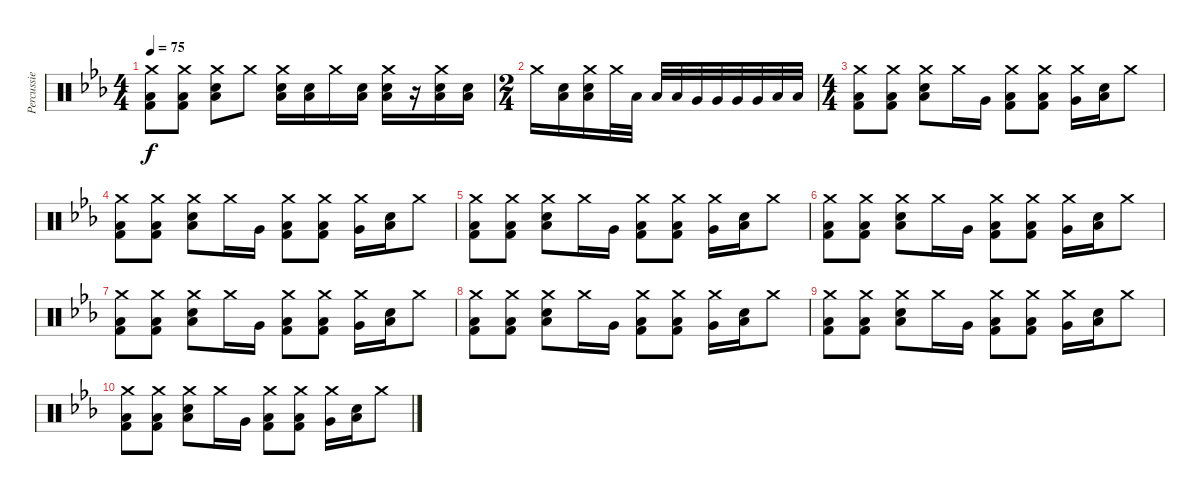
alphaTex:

\track ("Percussie" "Percussie") {instrument percussion}
\staff {score}
\articulation defaults
\ts (4 4)
\tempo 75
\clef neutral
\ks eb
("Low Floor Tom (hit)" "Kick (hit) 2" "Crash medium (hit)").8{dy f} ("Low Floor Tom (hit)" "Kick (hit) 2" "Crash medium (hit)").8 ("Low Tom (hit)" "Electric Snare (hit)" "Crash medium (hit)").8 "Crash medium (hit)".8 ("Low Floor Tom (hit)" "Electric Snare (hit)" "Crash medium (hit)").16 ("Low Floor Tom (hit)" "Electric Snare (hit)").16 "Crash medium (hit)".16 ("Low Floor Tom (hit)" "Electric Snare (hit)").16 ("Low Floor Tom (hit)" "Electric Snare (hit)" "Crash medium (hit)").16 r.16 ("Low Floor Tom (hit)" "Electric Snare (hit)" "Crash medium (hit)").16 ("Low Floor Tom (hit)" "Electric Snare (hit)").16 |
\ts (2 4)
"Crash medium (hit)".16 ("Low Floor Tom (hit)" "Electric Snare (hit)").16 ("Low Floor Tom (hit)" "Electric Snare (hit)" "Crash medium (hit)").16 "Crash medium (hit)".32 "Low Tom (hit)".32 "Low Tom (hit)".32 "Low Tom (hit)".32 "Very Low Tom (hit)".32 "Very Low Tom (hit)".32 "Very Low Tom (hit)".32 "Very Low Tom (hit)".32 "Low Floor Tom (hit)".32 "Low Floor Tom (hit)".32 |
\ts (4 4)
("Low Floor Tom (hit)" "Kick (hit) 2" "Crash medium (hit)").8 ("Low Floor Tom (hit)" "Kick (hit) 2" "Crash medium (hit)").8 ("Low Tom (hit)" "Electric Snare (hit)" "Crash medium (hit)").8 "Crash medium (hit)".16 "Very Low Tom (hit)".16 ("Low Floor Tom (hit)" "Kick (hit) 2" "Crash medium (hit)").8 ("Low Floor Tom (hit)" "Kick (hit) 2" "Crash medium (hit)").8 ("Very Low Tom (hit)" "Crash medium (hit)").16 ("Low Tom (hit)" "Electric Snare (hit)").16 "Crash medium (hit)".8 |
("Low Floor Tom (hit)" "Kick (hit) 2" "Crash medium (hit)").8 ("Low Floor Tom (hit)" "Kick (hit) 2" "Crash medium (hit)").8 ("Low Tom (hit)" "Electric Snare (hit)" "Crash medium (hit)").8 "Crash medium (hit)".16 "Very Low Tom (hit)".16 ("Low Floor Tom (hit)" "Kick (hit) 2" "Crash medium (hit)").8 ("Low Floor Tom (hit)" "Kick (hit) 2" "Crash medium (hit)").8 ("Very Low Tom (hit)" "Crash medium (hit)").16 ("Low Tom (hit)" "Electric Snare (hit)").16 "Crash medium (hit)".8 |
("Low Floor Tom (hit)" "Kick (hit) 2" "Crash medium (hit)").8 ("Low Floor Tom (hit)" "Kick (hit) 2" "Crash medium (hit)").8 ("Low Tom (hit)" "Electric Snare (hit)" "Crash medium (hit)").8 "Crash medium (hit)".16 "Very Low Tom (hit)".16 ("Low Floor Tom (hit)" "Kick (hit) 2" "Crash medium (hit)").8 ("Low Floor Tom (hit)" "Kick (hit) 2" "Crash medium (hit)").8 ("Very Low Tom (hit)" "Crash medium (hit)").16 ("Low Tom (hit)" "Electric Snare (hit)").16 "Crash medium (hit)".8 |
("Low Floor Tom (hit)" "Kick (hit) 2" "Crash medium (hit)").8 ("Low Floor Tom (hit)" "Kick (hit) 2" "Crash medium (hit)").8 ("Low Tom (hit)" "Electric Snare (hit)" "Crash medium (hit)").8 "Crash medium (hit)".16 "Very Low Tom (hit)".16 ("Low Floor Tom (hit)" "Kick (hit) 2" "Crash medium (hit)").8 ("Low Floor Tom (hit)" "Kick (hit) 2" "Crash medium (hit)").8 ("Very Low Tom (hit)" "Crash medium (hit)").16 ("Low Tom (hit)" "Electric Snare (hit)").16 "Crash medium (hit)".8 |
("Low Floor Tom (hit)" "Kick (hit) 2" "Crash medium (hit)").8 ("Low Floor Tom (hit)" "Kick (hit) 2" "Crash medium (hit)").8 ("Low Tom (hit)" "Electric Snare (hit)" "Crash medium (hit)").8 "Crash medium (hit)".16 "Very Low Tom (hit)".16 ("Low Floor Tom (hit)" "Kick (hit) 2" "Crash medium (hit)").8 ("Low Floor Tom (hit)" "Kick (hit) 2" "Crash medium (hit)").8 ("Very Low Tom (hit)" "Crash medium (hit)").16 ("Low Tom (hit)" "Electric Snare (hit)").16 "Crash medium (hit)".8 |
("Low Floor Tom (hit)" "Kick (hit) 2" "Crash medium (hit)").8 ("Low Floor Tom (hit)" "Kick (hit) 2" "Crash medium (hit)").8 ("Low Tom (hit)" "Electric Snare (hit)" "Crash medium (hit)").8 "Crash medium (hit)".16 "Very Low Tom (hit)".16 ("Low Floor Tom (hit)" "Kick (hit) 2" "Crash medium (hit)").8 ("Low Floor Tom (hit)" "Kick (hit) 2" "Crash medium (hit)").8 ("Very Low Tom (hit)" "Crash medium (hit)").16 ("Low Tom (hit)" "Electric Snare (hit)").16 "Crash medium (hit)".8 |
("Low Floor Tom (hit)" "Kick (hit) 2" "Crash medium (hit)").8 ("Low Floor Tom (hit)" "Kick (hit) 2" "Crash medium (hit)").8 ("Low Tom (hit)" "Electric Snare (hit)" "Crash medium (hit)").8 "Crash medium (hit)".16 "Very Low Tom (hit)".16 ("Low Floor Tom (hit)" "Kick (hit) 2" "Crash medium (hit)").8 ("Low Floor Tom (hit)" "Kick (hit) 2" "Crash medium (hit)").8 ("Very Low Tom (hit)" "Crash medium (hit)").16 ("Low Tom (hit)" "Electric Snare (hit)").16 "Crash medium (hit)".8 |
("Low Floor Tom (hit)" "Kick (hit) 2" "Crash medium (hit)").8 ("Low Floor Tom (hit)" "Kick (hit) 2" "Crash medium (hit)").8 ("Low Tom (hit)" "Electric Snare (hit)" "Crash medium (hit)").8 "Crash medium (hit)".16 "Very Low Tom (hit)".16 ("Low Floor Tom (hit)" "Kick (hit) 2" "Crash medium (hit)").8 ("Low Floor Tom (hit)" "Kick (hit) 2" "Crash medium (hit)").8 ("Very Low Tom (hit)" "Crash medium (hit)").16 ("Low Tom (hit)" "Electric Snare (hit)").16 "Crash medium (hit)".8
